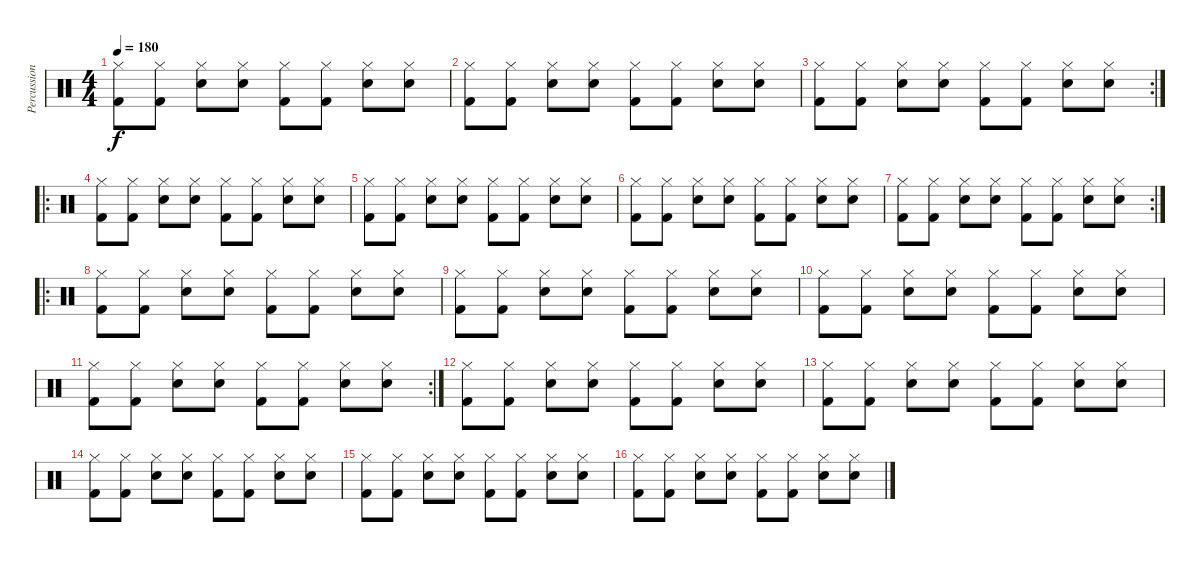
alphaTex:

\track ("Percussions" "Percussion") {instrument percussion}
\staff {score}
\articulation defaults
\ts (4 4)
\tempo 180
\clef neutral
\ks c
("Kick (hit) 2" "Hi-Hat (closed)").8{dy f} ("Kick (hit) 2" "Hi-Hat (closed)").8 ("Electric Snare (hit)" "Hi-Hat (closed)").8 ("Electric Snare (hit)" "Hi-Hat (closed)").8 ("Kick (hit) 2" "Hi-Hat (closed)").8 ("Kick (hit) 2" "Hi-Hat (closed)").8 ("Electric Snare (hit)" "Hi-Hat (closed)").8 ("Electric Snare (hit)" "Hi-Hat (closed)").8 |
("Kick (hit) 2" "Hi-Hat (closed)").8 ("Kick (hit) 2" "Hi-Hat (closed)").8 ("Electric Snare (hit)" "Hi-Hat (closed)").8 ("Electric Snare (hit)" "Hi-Hat (closed)").8 ("Kick (hit) 2" "Hi-Hat (closed)").8 ("Kick (hit) 2" "Hi-Hat (closed)").8 ("Electric Snare (hit)" "Hi-Hat (closed)").8 ("Electric Snare (hit)" "Hi-Hat (closed)").8 |
\rc 2
("Kick (hit) 2" "Hi-Hat (closed)").8 ("Kick (hit) 2" "Hi-Hat (closed)").8 ("Electric Snare (hit)" "Hi-Hat (closed)").8 ("Electric Snare (hit)" "Hi-Hat (closed)").8 ("Kick (hit) 2" "Hi-Hat (closed)").8 ("Kick (hit) 2" "Hi-Hat (closed)").8 ("Electric Snare (hit)" "Hi-Hat (closed)").8 ("Electric Snare (hit)" "Hi-Hat (closed)").8 |
\ro
("Kick (hit) 2" "Hi-Hat (closed)").8 ("Kick (hit) 2" "Hi-Hat (closed)").8 ("Electric Snare (hit)" "Hi-Hat (closed)").8 ("Electric Snare (hit)" "Hi-Hat (closed)").8 ("Kick (hit) 2" "Hi-Hat (closed)").8 ("Kick (hit) 2" "Hi-Hat (closed)").8 ("Electric Snare (hit)" "Hi-Hat (closed)").8 ("Electric Snare (hit)" "Hi-Hat (closed)").8 |
("Kick (hit) 2" "Hi-Hat (closed)").8 ("Kick (hit) 2" "Hi-Hat (closed)").8 ("Electric Snare (hit)" "Hi-Hat (closed)").8 ("Electric Snare (hit)" "Hi-Hat (closed)").8 ("Kick (hit) 2" "Hi-Hat (closed)").8 ("Kick (hit) 2" "Hi-Hat (closed)").8 ("Electric Snare (hit)" "Hi-Hat (closed)").8 ("Electric Snare (hit)" "Hi-Hat (closed)").8 |
("Kick (hit) 2" "Hi-Hat (closed)").8 ("Kick (hit) 2" "Hi-Hat (closed)").8 ("Electric Snare (hit)" "Hi-Hat (closed)").8 ("Electric Snare (hit)" "Hi-Hat (closed)").8 ("Kick (hit) 2" "Hi-Hat (closed)").8 ("Kick (hit) 2" "Hi-Hat (closed)").8 ("Electric Snare (hit)" "Hi-Hat (closed)").8 ("Electric Snare (hit)" "Hi-Hat (closed)").8 |
\rc 2
("Kick (hit) 2" "Hi-Hat (closed)").8 ("Kick (hit) 2" "Hi-Hat (closed)").8 ("Electric Snare (hit)" "Hi-Hat (closed)").8 ("Electric Snare (hit)" "Hi-Hat (closed)").8 ("Kick (hit) 2" "Hi-Hat (closed)").8 ("Kick (hit) 2" "Hi-Hat (closed)").8 ("Electric Snare (hit)" "Hi-Hat (closed)").8 ("Electric Snare (hit)" "Hi-Hat (closed)").8 |
\ro
("Kick (hit) 2" "Hi-Hat (closed)").8 ("Kick (hit) 2" "Hi-Hat (closed)").8 ("Electric Snare (hit)" "Hi-Hat (closed)").8 ("Electric Snare (hit)" "Hi-Hat (closed)").8 ("Kick (hit) 2" "Hi-Hat (closed)").8 ("Kick (hit) 2" "Hi-Hat (closed)").8 ("Electric Snare (hit)" "Hi-Hat (closed)").8 ("Electric Snare (hit)" "Hi-Hat (closed)").8 |
("Kick (hit) 2" "Hi-Hat (closed)").8 ("Kick (hit) 2" "Hi-Hat (closed)").8 ("Electric Snare (hit)" "Hi-Hat (closed)").8 ("Electric Snare (hit)" "Hi-Hat (closed)").8 ("Kick (hit) 2" "Hi-Hat (closed)").8 ("Kick (hit) 2" "Hi-Hat (closed)").8 ("Electric Snare (hit)" "Hi-Hat (closed)").8 ("Electric Snare (hit)" "Hi-Hat (closed)").8 |
("Kick (hit) 2" "Hi-Hat (closed)").8 ("Kick (hit) 2" "Hi-Hat (closed)").8 ("Electric Snare (hit)" "Hi-Hat (closed)").8 ("Electric Snare (hit)" "Hi-Hat (closed)").8 ("Kick (hit) 2" "Hi-Hat (closed)").8 ("Kick (hit) 2" "Hi-Hat (closed)").8 ("Electric Snare (hit)" "Hi-Hat (closed)").8 ("Electric Snare (hit)" "Hi-Hat (closed)").8 |
\rc 2
("Kick (hit) 2" "Hi-Hat (closed)").8 ("Kick (hit) 2" "Hi-Hat (closed)").8 ("Electric Snare (hit)" "Hi-Hat (closed)").8 ("Electric Snare (hit)" "Hi-Hat (closed)").8 ("Kick (hit) 2" "Hi-Hat (closed)").8 ("Kick (hit) 2" "Hi-Hat (closed)").8 ("Electric Snare (hit)" "Hi-Hat (closed)").8 ("Electric Snare (hit)" "Hi-Hat (closed)").8 |
("Kick (hit) 2" "Hi-Hat (closed)").8 ("Kick (hit) 2" "Hi-Hat (closed)").8 ("Electric Snare (hit)" "Hi-Hat (closed)").8 ("Electric Snare (hit)" "Hi-Hat (closed)").8 ("Kick (hit) 2" "Hi-Hat (closed)").8 ("Kick (hit) 2" "Hi-Hat (closed)").8 ("Electric Snare (hit)" "Hi-Hat (closed)").8 ("Electric Snare (hit)" "Hi-Hat (closed)").8 |
("Kick (hit) 2" "Hi-Hat (closed)").8 ("Kick (hit) 2" "Hi-Hat (closed)").8 ("Electric Snare (hit)" "Hi-Hat (closed)").8 ("Electric Snare (hit)" "Hi-Hat (closed)").8 ("Kick (hit) 2" "Hi-Hat (closed)").8 ("Kick (hit) 2" "Hi-Hat (closed)").8 ("Electric Snare (hit)" "Hi-Hat (closed)").8 ("Electric Snare (hit)" "Hi-Hat (closed)").8 |
("Kick (hit) 2" "Hi-Hat (closed)").8 ("Kick (hit) 2" "Hi-Hat (closed)").8 ("Electric Snare (hit)" "Hi-Hat (closed)").8 ("Electric Snare (hit)" "Hi-Hat (closed)").8 ("Kick (hit) 2" "Hi-Hat (closed)").8 ("Kick (hit) 2" "Hi-Hat (closed)").8 ("Electric Snare (hit)" "Hi-Hat (closed)").8 ("Electric Snare (hit)" "Hi-Hat (closed)").8 |
("Kick (hit) 2" "Hi-Hat (closed)").8 ("Kick (hit) 2" "Hi-Hat (closed)").8 ("Electric Snare (hit)" "Hi-Hat (closed)").8 ("Electric Snare (hit)" "Hi-Hat (closed)").8 ("Kick (hit) 2" "Hi-Hat (closed)").8 ("Kick (hit) 2" "Hi-Hat (closed)").8 ("Electric Snare (hit)" "Hi-Hat (closed)").8 ("Electric Snare (hit)" "Hi-Hat (closed)").8 |
("Kick (hit) 2" "Hi-Hat (closed)").8 ("Kick (hit) 2" "Hi-Hat (closed)").8 ("Electric Snare (hit)" "Hi-Hat (closed)").8 ("Electric Snare (hit)" "Hi-Hat (closed)").8 ("Kick (hit) 2" "Hi-Hat (closed)").8 ("Kick (hit) 2" "Hi-Hat (closed)").8 ("Electric Snare (hit)" "Hi-Hat (closed)").8 ("Electric Snare (hit)" "Hi-Hat (closed)").8
